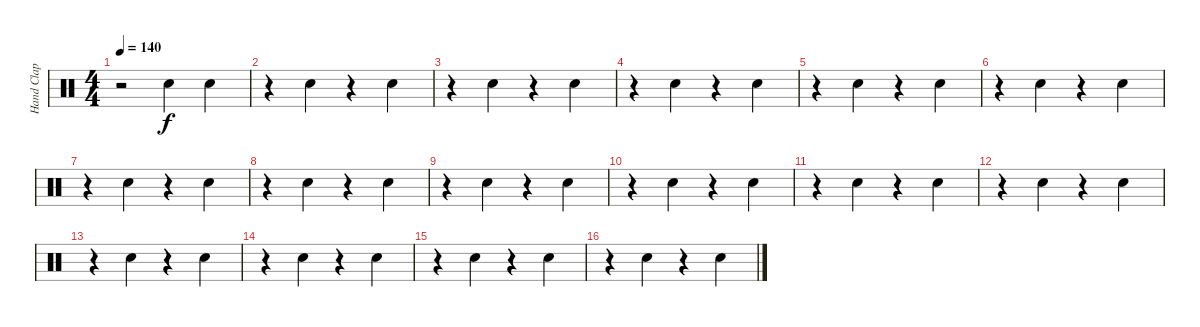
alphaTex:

\track ("Hand Clap" "Hand Clap") {instrument percussion}
\staff {score}
\articulation defaults
\ts (4 4)
\tempo 140
\clef neutral
\ks c
r.2{dy f} "Hand Clap (hit)".4 "Hand Clap (hit)".4 |
r.4 "Hand Clap (hit)".4 r.4 "Hand Clap (hit)".4 |
r.4 "Hand Clap (hit)".4 r.4 "Hand Clap (hit)".4 |
r.4 "Hand Clap (hit)".4 r.4 "Hand Clap (hit)".4 |
r.4 "Hand Clap (hit)".4 r.4 "Hand Clap (hit)".4 |
r.4 "Hand Clap (hit)".4 r.4 "Hand Clap (hit)".4 |
r.4 "Hand Clap (hit)".4 r.4 "Hand Clap (hit)".4 |
r.4 "Hand Clap (hit)".4 r.4 "Hand Clap (hit)".4 |
r.4 "Hand Clap (hit)".4 r.4 "Hand Clap (hit)".4 |
r.4 "Hand Clap (hit)".4 r.4 "Hand Clap (hit)".4 |
r.4 "Hand Clap (hit)".4 r.4 "Hand Clap (hit)".4 |
r.4 "Hand Clap (hit)".4 r.4 "Hand Clap (hit)".4 |
r.4 "Hand Clap (hit)".4 r.4 "Hand Clap (hit)".4 |
r.4 "Hand Clap (hit)".4 r.4 "Hand Clap (hit)".4 |
r.4 "Hand Clap (hit)".4 r.4 "Hand Clap (hit)".4 |
r.4 "Hand Clap (hit)".4 r.4 "Hand Clap (hit)".4
